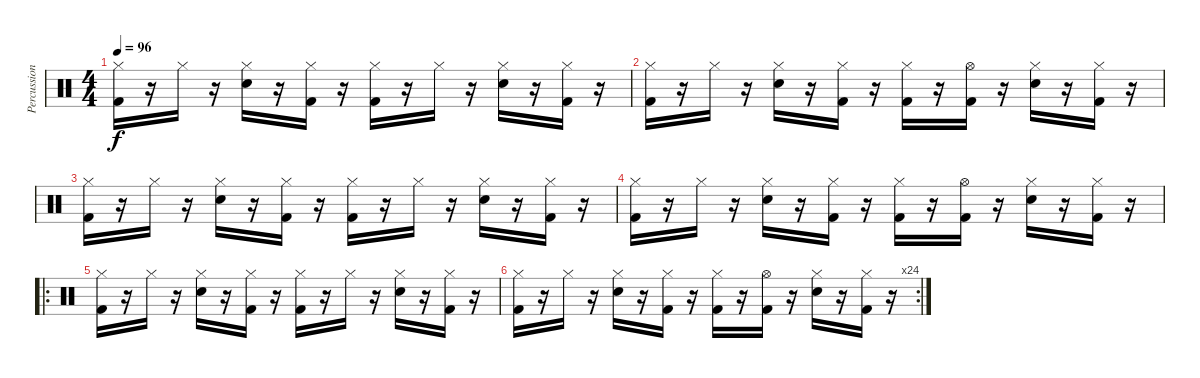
\track ("Percussion" "Percussion") {instrument percussion}
\staff {score}
\articulation defaults
\ts (4 4)
\tempo 96
\clef neutral
\ks c
("Hi-Hat (closed)" "Kick (hit) 2").16{dy f} r.16 "Hi-Hat (closed)".16 r.16 ("Hi-Hat (closed)" "Electric Snare (hit)").16 r.16 ("Hi-Hat (closed)" "Kick (hit) 2").16 r.16 ("Hi-Hat (closed)" "Kick (hit) 2").16 r.16 "Hi-Hat (closed)".16 r.16 ("Hi-Hat (closed)" "Electric Snare (hit)").16 r.16 ("Hi-Hat (closed)" "Kick (hit) 2").16 r.16 |
("Hi-Hat (closed)" "Kick (hit) 2").16 r.16 "Hi-Hat (closed)".16 r.16 ("Hi-Hat (closed)" "Electric Snare (hit)").16 r.16 ("Hi-Hat (closed)" "Kick (hit) 2").16 r.16 ("Hi-Hat (closed)" "Kick (hit) 2").16 r.16 ("Hi-Hat (open)" "Kick (hit) 2").16 r.16 ("Hi-Hat (closed)" "Electric Snare (hit)").16 r.16 ("Hi-Hat (closed)" "Kick (hit) 2").16 r.16 |
("Hi-Hat (closed)" "Kick (hit) 2").16 r.16 "Hi-Hat (closed)".16 r.16 ("Hi-Hat (closed)" "Electric Snare (hit)").16 r.16 ("Hi-Hat (closed)" "Kick (hit) 2").16 r.16 ("Hi-Hat (closed)" "Kick (hit) 2").16 r.16 "Hi-Hat (closed)".16 r.16 ("Hi-Hat (closed)" "Electric Snare (hit)").16 r.16 ("Hi-Hat (closed)" "Kick (hit) 2").16 r.16 |
("Hi-Hat (closed)" "Kick (hit) 2").16 r.16 "Hi-Hat (closed)".16 r.16 ("Hi-Hat (closed)" "Electric Snare (hit)").16 r.16 ("Hi-Hat (closed)" "Kick (hit) 2").16 r.16 ("Hi-Hat (closed)" "Kick (hit) 2").16 r.16 ("Hi-Hat (open)" "Kick (hit) 2").16 r.16 ("Hi-Hat (closed)" "Electric Snare (hit)").16 r.16 ("Hi-Hat (closed)" "Kick (hit) 2").16 r.16 |
\ro
("Hi-Hat (closed)" "Kick (hit) 2").16 r.16 "Hi-Hat (closed)".16 r.16 ("Hi-Hat (closed)" "Electric Snare (hit)").16 r.16 ("Hi-Hat (closed)" "Kick (hit) 2").16 r.16 ("Hi-Hat (closed)" "Kick (hit) 2").16 r.16 "Hi-Hat (closed)".16 r.16 ("Hi-Hat (closed)" "Electric Snare (hit)").16 r.16 ("Hi-Hat (closed)" "Kick (hit) 2").16 r.16 |
\rc 24
("Hi-Hat (closed)" "Kick (hit) 2").16 r.16 "Hi-Hat (closed)".16 r.16 ("Hi-Hat (closed)" "Electric Snare (hit)").16 r.16 ("Hi-Hat (closed)" "Kick (hit) 2").16 r.16 ("Hi-Hat (closed)" "Kick (hit) 2").16 r.16 ("Hi-Hat (open)" "Kick (hit) 2").16 r.16 ("Hi-Hat (closed)" "Electric Snare (hit)").16 r.16 ("Hi-Hat (closed)" "Kick (hit) 2").16 r.16
